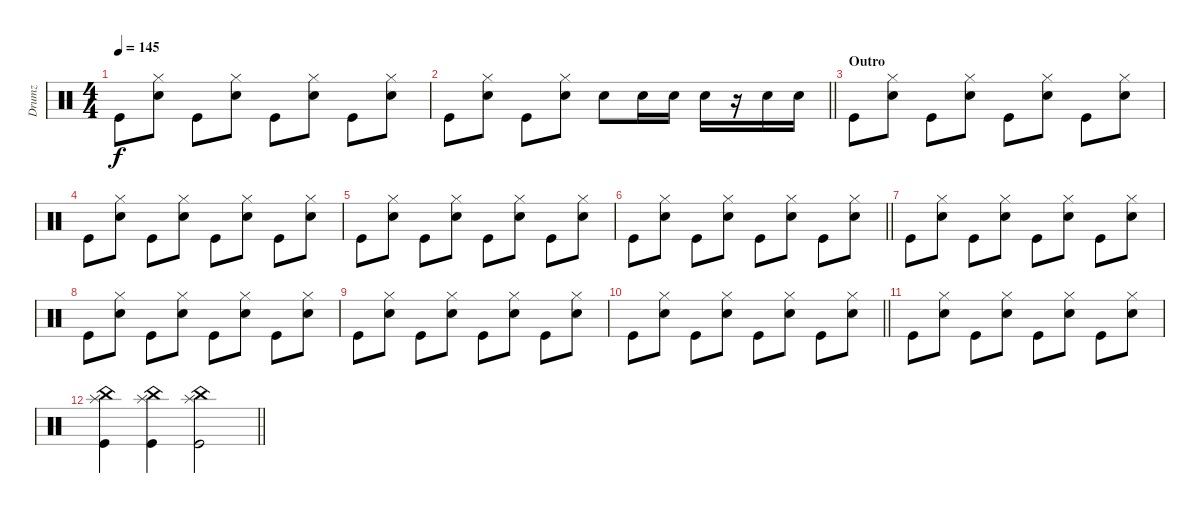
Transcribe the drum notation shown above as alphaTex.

\track ("Drumz" "Drumz") {instrument percussion}
\staff {score}
\articulation defaults
\ts (4 4)
\tempo 145
\clef neutral
\ks c "Kick (hit)".8{dy f}
("Hi-Hat (closed)" "Snare (hit) 2").8 "Kick (hit)".8 ("Hi-Hat (closed)" "Snare (hit) 2").8 "Kick (hit)".8 ("Hi-Hat (closed)" "Snare (hit) 2").8 "Kick (hit)".8 ("Hi-Hat (closed)" "Snare (hit) 2").8 |
\barLineRight lightlight "Kick (hit)".8
("Hi-Hat (closed)" "Snare (hit) 2").8 "Kick (hit)".8 ("Hi-Hat (closed)" "Snare (hit) 2").8 "Snare (hit) 2".8 "Snare (hit) 2".16 "Snare (hit) 2".16 "Snare (hit) 2".16 r.16 "Snare (hit) 2".16 "Snare (hit) 2".16 |
\section ("" "Outro")
"Kick (hit)".8 ("Hi-Hat (closed)" "Snare (hit) 2").8 "Kick (hit)".8 ("Hi-Hat (closed)" "Snare (hit) 2").8 "Kick (hit)".8 ("Hi-Hat (closed)" "Snare (hit) 2").8 "Kick (hit)".8 ("Hi-Hat (closed)" "Snare (hit) 2").8 |
"Kick (hit)".8 ("Hi-Hat (closed)" "Snare (hit) 2").8 "Kick (hit)".8 ("Hi-Hat (closed)" "Snare (hit) 2").8 "Kick (hit)".8 ("Hi-Hat (closed)" "Snare (hit) 2").8 "Kick (hit)".8 ("Hi-Hat (closed)" "Snare (hit) 2").8 |
"Kick (hit)".8 ("Hi-Hat (closed)" "Snare (hit) 2").8 "Kick (hit)".8 ("Hi-Hat (closed)" "Snare (hit) 2").8 "Kick (hit)".8 ("Hi-Hat (closed)" "Snare (hit) 2").8 "Kick (hit)".8 ("Hi-Hat (closed)" "Snare (hit) 2").8 |
\barLineRight lightlight "Kick (hit)".8
("Hi-Hat (closed)" "Snare (hit) 2").8 "Kick (hit)".8 ("Hi-Hat (closed)" "Snare (hit) 2").8 "Kick (hit)".8 ("Hi-Hat (closed)" "Snare (hit) 2").8 "Kick (hit)".8 ("Hi-Hat (closed)" "Snare (hit) 2").8 |
"Kick (hit)".8 ("Hi-Hat (closed)" "Snare (hit) 2").8 "Kick (hit)".8 ("Hi-Hat (closed)" "Snare (hit) 2").8 "Kick (hit)".8 ("Hi-Hat (closed)" "Snare (hit) 2").8 "Kick (hit)".8 ("Hi-Hat (closed)" "Snare (hit) 2").8 |
"Kick (hit)".8 ("Hi-Hat (closed)" "Snare (hit) 2").8 "Kick (hit)".8 ("Hi-Hat (closed)" "Snare (hit) 2").8 "Kick (hit)".8 ("Hi-Hat (closed)" "Snare (hit) 2").8 "Kick (hit)".8 ("Hi-Hat (closed)" "Snare (hit) 2").8 |
"Kick (hit)".8 ("Hi-Hat (closed)" "Snare (hit) 2").8 "Kick (hit)".8 ("Hi-Hat (closed)" "Snare (hit) 2").8 "Kick (hit)".8 ("Hi-Hat (closed)" "Snare (hit) 2").8 "Kick (hit)".8 ("Hi-Hat (closed)" "Snare (hit) 2").8 |
\barLineRight lightlight "Kick (hit)".8
("Hi-Hat (closed)" "Snare (hit) 2").8 "Kick (hit)".8 ("Hi-Hat (closed)" "Snare (hit) 2").8 "Kick (hit)".8 ("Hi-Hat (closed)" "Snare (hit) 2").8 "Kick (hit)".8 ("Hi-Hat (closed)" "Snare (hit) 2").8 |
"Kick (hit)".8 ("Hi-Hat (closed)" "Snare (hit) 2").8 "Kick (hit)".8 ("Hi-Hat (closed)" "Snare (hit) 2").8 "Kick (hit)".8 ("Hi-Hat (closed)" "Snare (hit) 2").8 "Kick (hit)".8 ("Hi-Hat (closed)" "Snare (hit) 2").8 |
\barLineRight lightlight
("Kick (hit)" "China (hit)" "Splash (hit)").4 ("Kick (hit)" "China (hit)" "Splash (hit)").4 ("Kick (hit)" "China (hit)" "Splash (hit)").2
